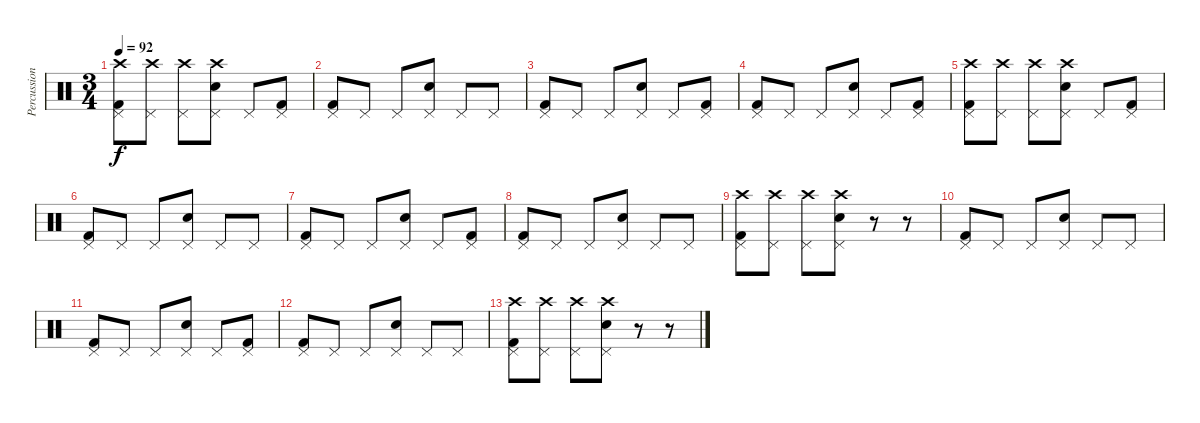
\track ("Percussion" "Percussion") {instrument percussion}
\staff {score}
\articulation defaults
\ts (3 4)
\tempo 92
\clef neutral
\ks c
("Pedal Hi-Hat (hit)" "Kick (hit) 2" "Crash high (hit)").8{dy f} ("Pedal Hi-Hat (hit)" "Crash high (hit)").8 ("Pedal Hi-Hat (hit)" "Crash high (hit)").8 ("Pedal Hi-Hat (hit)" "Electric Snare (hit)" "Crash high (hit)").8 "Pedal Hi-Hat (hit)".8 ("Pedal Hi-Hat (hit)" "Kick (hit) 2").8 |
("Pedal Hi-Hat (hit)" "Kick (hit) 2").8 "Pedal Hi-Hat (hit)".8 "Pedal Hi-Hat (hit)".8 ("Pedal Hi-Hat (hit)" "Electric Snare (hit)").8 "Pedal Hi-Hat (hit)".8 "Pedal Hi-Hat (hit)".8 |
("Pedal Hi-Hat (hit)" "Kick (hit) 2").8 "Pedal Hi-Hat (hit)".8 "Pedal Hi-Hat (hit)".8 ("Pedal Hi-Hat (hit)" "Electric Snare (hit)").8 "Pedal Hi-Hat (hit)".8 ("Pedal Hi-Hat (hit)" "Kick (hit) 2").8 |
("Pedal Hi-Hat (hit)" "Kick (hit) 2").8 "Pedal Hi-Hat (hit)".8 "Pedal Hi-Hat (hit)".8 ("Pedal Hi-Hat (hit)" "Electric Snare (hit)").8 "Pedal Hi-Hat (hit)".8 ("Pedal Hi-Hat (hit)" "Kick (hit) 2").8 |
("Pedal Hi-Hat (hit)" "Kick (hit) 2" "Crash high (hit)").8 ("Pedal Hi-Hat (hit)" "Crash high (hit)").8 ("Pedal Hi-Hat (hit)" "Crash high (hit)").8 ("Pedal Hi-Hat (hit)" "Electric Snare (hit)" "Crash high (hit)").8 "Pedal Hi-Hat (hit)".8 ("Pedal Hi-Hat (hit)" "Kick (hit) 2").8 |
("Pedal Hi-Hat (hit)" "Kick (hit) 2").8 "Pedal Hi-Hat (hit)".8 "Pedal Hi-Hat (hit)".8 ("Pedal Hi-Hat (hit)" "Electric Snare (hit)").8 "Pedal Hi-Hat (hit)".8 "Pedal Hi-Hat (hit)".8 |
("Pedal Hi-Hat (hit)" "Kick (hit) 2").8 "Pedal Hi-Hat (hit)".8 "Pedal Hi-Hat (hit)".8 ("Pedal Hi-Hat (hit)" "Electric Snare (hit)").8 "Pedal Hi-Hat (hit)".8 ("Pedal Hi-Hat (hit)" "Kick (hit) 2").8 |
("Pedal Hi-Hat (hit)" "Kick (hit) 2").8 "Pedal Hi-Hat (hit)".8 "Pedal Hi-Hat (hit)".8 ("Pedal Hi-Hat (hit)" "Electric Snare (hit)").8 "Pedal Hi-Hat (hit)".8 "Pedal Hi-Hat (hit)".8 |
("Pedal Hi-Hat (hit)" "Kick (hit) 2" "Crash high (hit)").8 ("Pedal Hi-Hat (hit)" "Crash high (hit)").8 ("Pedal Hi-Hat (hit)" "Crash high (hit)").8 ("Pedal Hi-Hat (hit)" "Electric Snare (hit)" "Crash high (hit)").8 r.8 r.8 |
("Pedal Hi-Hat (hit)" "Kick (hit) 2").8 "Pedal Hi-Hat (hit)".8 "Pedal Hi-Hat (hit)".8 ("Pedal Hi-Hat (hit)" "Electric Snare (hit)").8 "Pedal Hi-Hat (hit)".8 "Pedal Hi-Hat (hit)".8 |
("Pedal Hi-Hat (hit)" "Kick (hit) 2").8 "Pedal Hi-Hat (hit)".8 "Pedal Hi-Hat (hit)".8 ("Pedal Hi-Hat (hit)" "Electric Snare (hit)").8 "Pedal Hi-Hat (hit)".8 ("Pedal Hi-Hat (hit)" "Kick (hit) 2").8 |
("Pedal Hi-Hat (hit)" "Kick (hit) 2").8 "Pedal Hi-Hat (hit)".8 "Pedal Hi-Hat (hit)".8 ("Pedal Hi-Hat (hit)" "Electric Snare (hit)").8 "Pedal Hi-Hat (hit)".8 "Pedal Hi-Hat (hit)".8 |
("Pedal Hi-Hat (hit)" "Kick (hit) 2" "Crash high (hit)").8 ("Pedal Hi-Hat (hit)" "Crash high (hit)").8 ("Pedal Hi-Hat (hit)" "Crash high (hit)").8 ("Pedal Hi-Hat (hit)" "Electric Snare (hit)" "Crash high (hit)").8 r.8 r.8
